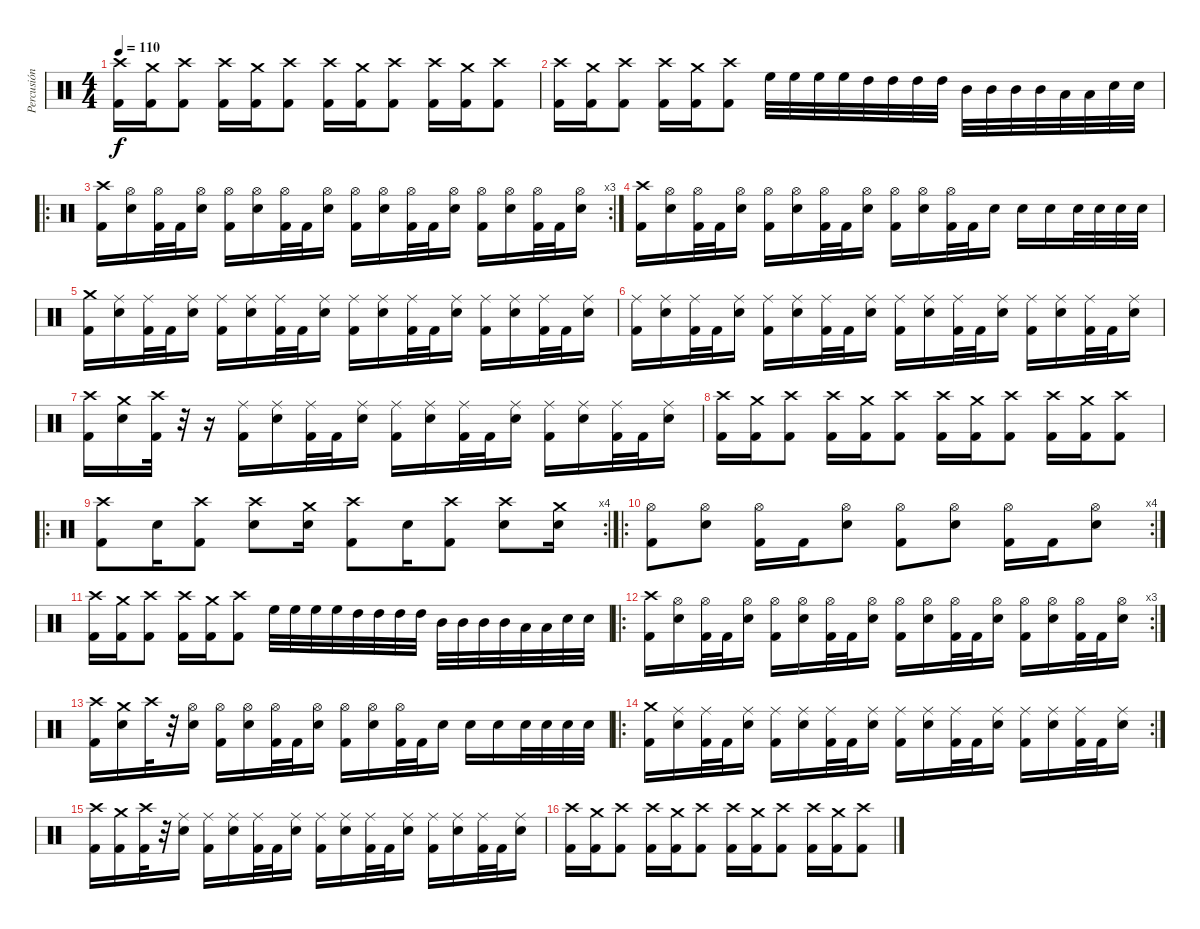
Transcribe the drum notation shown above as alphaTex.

\track ("Percusión" "Percusión") {instrument percussion}
\staff {score}
\articulation defaults
\ts (4 4)
\tempo 110
\clef neutral
\ks c
("Crash high (hit)" "Kick (hit) 2").16{dy f} ("Crash medium (hit)" "Kick (hit) 2").16 ("Crash high (hit)" "Kick (hit) 2").8 ("Crash high (hit)" "Kick (hit) 2").16 ("Crash medium (hit)" "Kick (hit) 2").16 ("Crash high (hit)" "Kick (hit) 2").8 ("Crash high (hit)" "Kick (hit) 2").16 ("Crash medium (hit)" "Kick (hit) 2").16 ("Crash high (hit)" "Kick (hit) 2").8 ("Crash high (hit)" "Kick (hit) 2").16 ("Crash medium (hit)" "Kick (hit) 2").16 ("Crash high (hit)" "Kick (hit) 2").8 |
("Crash high (hit)" "Kick (hit) 2").16 ("Crash medium (hit)" "Kick (hit) 2").16 ("Crash high (hit)" "Kick (hit) 2").8 ("Crash high (hit)" "Kick (hit) 2").16 ("Crash medium (hit)" "Kick (hit) 2").16 ("Crash high (hit)" "Kick (hit) 2").8 "High Floor Tom (hit)".32 "High Floor Tom (hit)".32 "High Floor Tom (hit)".32 "High Floor Tom (hit)".32 "High Tom (hit)".32 "High Tom (hit)".32 "High Tom (hit)".32 "High Tom (hit)".32 "Mid Tom (hit)".32 "Mid Tom (hit)".32 "Mid Tom (hit)".32 "Mid Tom (hit)".32 "Low Tom (hit)".32 "Low Tom (hit)".32 "Electric Snare (hit)".32 "Electric Snare (hit)".32 |
\ro
\rc 3
("Crash high (hit)" "Kick (hit) 2").16 ("Hi-Hat (open)" "Electric Snare (hit)").16 ("Hi-Hat (open)" "Kick (hit) 2").32 "Kick (hit) 2".32 ("Hi-Hat (open)" "Electric Snare (hit)").16 ("Hi-Hat (open)" "Kick (hit) 2").16 ("Hi-Hat (open)" "Electric Snare (hit)").16 ("Hi-Hat (open)" "Kick (hit) 2").32 "Kick (hit) 2".32 ("Hi-Hat (open)" "Electric Snare (hit)").16 ("Hi-Hat (open)" "Kick (hit) 2").16 ("Hi-Hat (open)" "Electric Snare (hit)").16 ("Hi-Hat (open)" "Kick (hit) 2").32 "Kick (hit) 2".32 ("Hi-Hat (open)" "Electric Snare (hit)").16 ("Hi-Hat (open)" "Kick (hit) 2").16 ("Hi-Hat (open)" "Electric Snare (hit)").16 ("Hi-Hat (open)" "Kick (hit) 2").32 "Kick (hit) 2".32 ("Hi-Hat (open)" "Electric Snare (hit)").16 |
("Crash high (hit)" "Kick (hit) 2").16 ("Hi-Hat (open)" "Electric Snare (hit)").16 ("Hi-Hat (open)" "Kick (hit) 2").32 "Kick (hit) 2".32 ("Hi-Hat (open)" "Electric Snare (hit)").16 ("Hi-Hat (open)" "Kick (hit) 2").16 ("Hi-Hat (open)" "Electric Snare (hit)").16 ("Hi-Hat (open)" "Kick (hit) 2").32 "Kick (hit) 2".32 ("Hi-Hat (open)" "Electric Snare (hit)").16 ("Hi-Hat (open)" "Kick (hit) 2").16 ("Hi-Hat (open)" "Electric Snare (hit)").16 ("Hi-Hat (open)" "Kick (hit) 2").32 "Kick (hit) 2".32 "Electric Snare (hit)".16 "Electric Snare (hit)".16 "Electric Snare (hit)".16 "Electric Snare (hit)".32 "Electric Snare (hit)".32 "Electric Snare (hit)".32 "Electric Snare (hit)".32 |
("Crash medium (hit)" "Kick (hit) 2").16 ("Ride (middle)" "Electric Snare (hit)").16 ("Ride (middle)" "Kick (hit) 2").32 "Kick (hit) 2".32 ("Ride (middle)" "Electric Snare (hit)").16 ("Ride (middle)" "Kick (hit) 2").16 ("Ride (middle)" "Electric Snare (hit)").16 ("Ride (middle)" "Kick (hit) 2").32 "Kick (hit) 2".32 ("Ride (middle)" "Electric Snare (hit)").16 ("Ride (middle)" "Kick (hit) 2").16 ("Ride (middle)" "Electric Snare (hit)").16 ("Ride (middle)" "Kick (hit) 2").32 "Kick (hit) 2".32 ("Ride (middle)" "Electric Snare (hit)").16 ("Ride (middle)" "Kick (hit) 2").16 ("Ride (middle)" "Electric Snare (hit)").16 ("Ride (middle)" "Kick (hit) 2").32 "Kick (hit) 2".32 ("Ride (middle)" "Electric Snare (hit)").16 |
("Ride (middle)" "Kick (hit) 2").16 ("Ride (middle)" "Electric Snare (hit)").16 ("Ride (middle)" "Kick (hit) 2").32 "Kick (hit) 2".32 ("Ride (middle)" "Electric Snare (hit)").16 ("Ride (middle)" "Kick (hit) 2").16 ("Ride (middle)" "Electric Snare (hit)").16 ("Ride (middle)" "Kick (hit) 2").32 "Kick (hit) 2".32 ("Ride (middle)" "Electric Snare (hit)").16 ("Ride (middle)" "Kick (hit) 2").16 ("Ride (middle)" "Electric Snare (hit)").16 ("Ride (middle)" "Kick (hit) 2").32 "Kick (hit) 2".32 ("Ride (middle)" "Electric Snare (hit)").16 ("Ride (middle)" "Kick (hit) 2").16 ("Ride (middle)" "Electric Snare (hit)").16 ("Ride (middle)" "Kick (hit) 2").32 "Kick (hit) 2".32 ("Ride (middle)" "Electric Snare (hit)").16 |
("Crash high (hit)" "Kick (hit) 2").16 ("Crash medium (hit)" "Electric Snare (hit)").16 ("Crash high (hit)" "Kick (hit) 2").32 r.32 r.16 ("Ride (middle)" "Kick (hit) 2").16 ("Ride (middle)" "Electric Snare (hit)").16 ("Ride (middle)" "Kick (hit) 2").32 "Kick (hit) 2".32 ("Ride (middle)" "Electric Snare (hit)").16 ("Ride (middle)" "Kick (hit) 2").16 ("Ride (middle)" "Electric Snare (hit)").16 ("Ride (middle)" "Kick (hit) 2").32 "Kick (hit) 2".32 ("Ride (middle)" "Electric Snare (hit)").16 ("Ride (middle)" "Kick (hit) 2").16 ("Ride (middle)" "Electric Snare (hit)").16 ("Ride (middle)" "Kick (hit) 2").32 "Kick (hit) 2".32 ("Ride (middle)" "Electric Snare (hit)").16 |
("Crash high (hit)" "Kick (hit) 2").16 ("Crash medium (hit)" "Kick (hit) 2").16 ("Crash high (hit)" "Kick (hit) 2").8 ("Crash high (hit)" "Kick (hit) 2").16 ("Crash medium (hit)" "Kick (hit) 2").16 ("Crash high (hit)" "Kick (hit) 2").8 ("Crash high (hit)" "Kick (hit) 2").16 ("Crash medium (hit)" "Kick (hit) 2").16 ("Crash high (hit)" "Kick (hit) 2").8 ("Crash high (hit)" "Kick (hit) 2").16 ("Crash medium (hit)" "Kick (hit) 2").16 ("Crash high (hit)" "Kick (hit) 2").8 |
\ro
\rc 4
("Crash high (hit)" "Kick (hit) 2").8 "Electric Snare (hit)".16 ("Crash high (hit)" "Kick (hit) 2").8 ("Crash high (hit)" "Electric Snare (hit)").8 ("Crash medium (hit)" "Electric Snare (hit)").16 ("Crash high (hit)" "Kick (hit) 2").8 "Electric Snare (hit)".16 ("Crash high (hit)" "Kick (hit) 2").8 ("Crash high (hit)" "Electric Snare (hit)").8 ("Crash medium (hit)" "Electric Snare (hit)").16 |
\ro
\rc 4
("Hi-Hat (open)" "Kick (hit) 2").8 ("Hi-Hat (open)" "Electric Snare (hit)").8 ("Hi-Hat (open)" "Kick (hit) 2").16 "Kick (hit) 2".16 ("Hi-Hat (open)" "Electric Snare (hit)").8 ("Hi-Hat (open)" "Kick (hit) 2").8 ("Hi-Hat (open)" "Electric Snare (hit)").8 ("Hi-Hat (open)" "Kick (hit) 2").16 "Kick (hit) 2".16 ("Hi-Hat (open)" "Electric Snare (hit)").8 |
("Crash high (hit)" "Kick (hit) 2").16 ("Crash medium (hit)" "Kick (hit) 2").16 ("Crash high (hit)" "Kick (hit) 2").8 ("Crash high (hit)" "Kick (hit) 2").16 ("Crash medium (hit)" "Kick (hit) 2").16 ("Crash high (hit)" "Kick (hit) 2").8 "High Floor Tom (hit)".32 "High Floor Tom (hit)".32 "High Floor Tom (hit)".32 "High Floor Tom (hit)".32 "High Tom (hit)".32 "High Tom (hit)".32 "High Tom (hit)".32 "High Tom (hit)".32 "Mid Tom (hit)".32 "Mid Tom (hit)".32 "Mid Tom (hit)".32 "Mid Tom (hit)".32 "Low Tom (hit)".32 "Low Tom (hit)".32 "Electric Snare (hit)".32 "Electric Snare (hit)".32 |
\ro
\rc 3
("Crash high (hit)" "Kick (hit) 2").16 ("Hi-Hat (open)" "Electric Snare (hit)").16 ("Hi-Hat (open)" "Kick (hit) 2").32 "Kick (hit) 2".32 ("Hi-Hat (open)" "Electric Snare (hit)").16 ("Hi-Hat (open)" "Kick (hit) 2").16 ("Hi-Hat (open)" "Electric Snare (hit)").16 ("Hi-Hat (open)" "Kick (hit) 2").32 "Kick (hit) 2".32 ("Hi-Hat (open)" "Electric Snare (hit)").16 ("Hi-Hat (open)" "Kick (hit) 2").16 ("Hi-Hat (open)" "Electric Snare (hit)").16 ("Hi-Hat (open)" "Kick (hit) 2").32 "Kick (hit) 2".32 ("Hi-Hat (open)" "Electric Snare (hit)").16 ("Hi-Hat (open)" "Kick (hit) 2").16 ("Hi-Hat (open)" "Electric Snare (hit)").16 ("Hi-Hat (open)" "Kick (hit) 2").32 "Kick (hit) 2".32 ("Hi-Hat (open)" "Electric Snare (hit)").16 |
("Crash high (hit)" "Kick (hit) 2").16 ("Crash medium (hit)" "Electric Snare (hit)").16 "Crash high (hit)".32 r.32 ("Hi-Hat (open)" "Electric Snare (hit)").16 ("Hi-Hat (open)" "Kick (hit) 2").16 ("Hi-Hat (open)" "Electric Snare (hit)").16 ("Hi-Hat (open)" "Kick (hit) 2").32 "Kick (hit) 2".32 ("Hi-Hat (open)" "Electric Snare (hit)").16 ("Hi-Hat (open)" "Kick (hit) 2").16 ("Hi-Hat (open)" "Electric Snare (hit)").16 ("Hi-Hat (open)" "Kick (hit) 2").32 "Kick (hit) 2".32 "Electric Snare (hit)".16 "Electric Snare (hit)".16 "Electric Snare (hit)".16 "Electric Snare (hit)".32 "Electric Snare (hit)".32 "Electric Snare (hit)".32 "Electric Snare (hit)".32 |
\ro
\rc 2
("Crash medium (hit)" "Kick (hit) 2").16 ("Ride (middle)" "Electric Snare (hit)").16 ("Ride (middle)" "Kick (hit) 2").32 "Kick (hit) 2".32 ("Ride (middle)" "Electric Snare (hit)").16 ("Ride (middle)" "Kick (hit) 2").16 ("Ride (middle)" "Electric Snare (hit)").16 ("Ride (middle)" "Kick (hit) 2").32 "Kick (hit) 2".32 ("Ride (middle)" "Electric Snare (hit)").16 ("Ride (middle)" "Kick (hit) 2").16 ("Ride (middle)" "Electric Snare (hit)").16 ("Ride (middle)" "Kick (hit) 2").32 "Kick (hit) 2".32 ("Ride (middle)" "Electric Snare (hit)").16 ("Ride (middle)" "Kick (hit) 2").16 ("Ride (middle)" "Electric Snare (hit)").16 ("Ride (middle)" "Kick (hit) 2").32 "Kick (hit) 2".32 ("Ride (middle)" "Electric Snare (hit)").16 |
("Crash high (hit)" "Kick (hit) 2").16 ("Crash medium (hit)" "Kick (hit) 2").16 ("Crash high (hit)" "Kick (hit) 2").32 r.32 ("Ride (middle)" "Electric Snare (hit)").16 ("Ride (middle)" "Kick (hit) 2").16 ("Ride (middle)" "Electric Snare (hit)").16 ("Ride (middle)" "Kick (hit) 2").32 "Kick (hit) 2".32 ("Ride (middle)" "Electric Snare (hit)").16 ("Ride (middle)" "Kick (hit) 2").16 ("Ride (middle)" "Electric Snare (hit)").16 ("Ride (middle)" "Kick (hit) 2").32 "Kick (hit) 2".32 ("Ride (middle)" "Electric Snare (hit)").16 ("Ride (middle)" "Kick (hit) 2").16 ("Ride (middle)" "Electric Snare (hit)").16 ("Ride (middle)" "Kick (hit) 2").32 "Kick (hit) 2".32 ("Ride (middle)" "Electric Snare (hit)").16 |
("Crash high (hit)" "Kick (hit) 2").16 ("Crash medium (hit)" "Kick (hit) 2").16 ("Crash high (hit)" "Kick (hit) 2").8 ("Crash high (hit)" "Kick (hit) 2").16 ("Crash medium (hit)" "Kick (hit) 2").16 ("Crash high (hit)" "Kick (hit) 2").8 ("Crash high (hit)" "Kick (hit) 2").16 ("Crash medium (hit)" "Kick (hit) 2").16 ("Crash high (hit)" "Kick (hit) 2").8 ("Crash high (hit)" "Kick (hit) 2").16 ("Crash medium (hit)" "Kick (hit) 2").16 ("Crash high (hit)" "Kick (hit) 2").8
